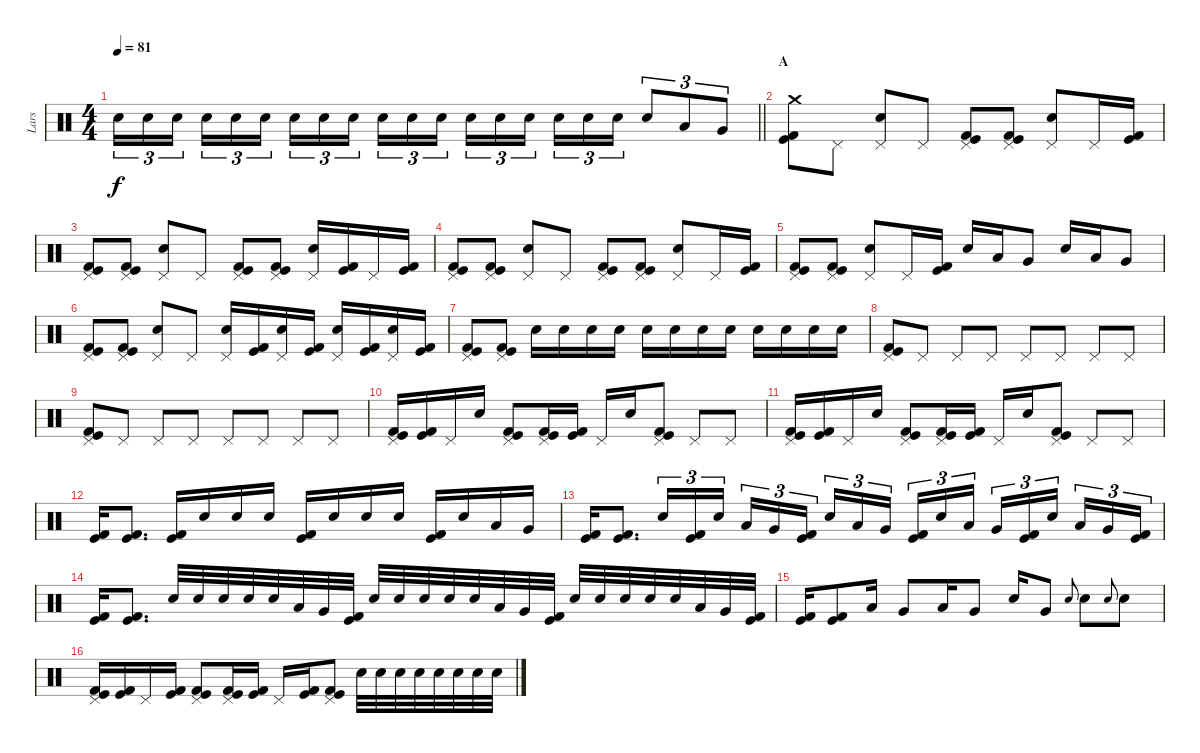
\track ("Lars" "Lars") {instrument percussion}
\staff {score}
\articulation defaults
\ts (4 4)
\tempo 81
\clef neutral
\barLineRight lightlight
\ks c "Electric Snare (hit)".16{tu (3 2) dy f} "Electric Snare (hit)".16{tu (3 2)} "Electric Snare (hit)".16{tu (3 2) beam splitsecondary} "Electric Snare (hit)".16{tu (3 2)} "Electric Snare (hit)".16{tu (3 2)} "Electric Snare (hit)".16{tu (3 2)} "Electric Snare (hit)".16{tu (3 2)} "Electric Snare (hit)".16{tu (3 2)} "Electric Snare (hit)".16{tu (3 2) beam splitsecondary} "Electric Snare (hit)".16{tu (3 2)} "Electric Snare (hit)".16{tu (3 2)} "Electric Snare (hit)".16{tu (3 2)} "Electric Snare (hit)".16{tu (3 2)} "Electric Snare (hit)".16{tu (3 2)} "Electric Snare (hit)".16{tu (3 2) beam splitsecondary} "Electric Snare (hit)".16{tu (3 2)} "Electric Snare (hit)".16{tu (3 2)} "Electric Snare (hit)".16{tu (3 2)} "Electric Snare (hit)".8{tu (3 2)} "Low Tom (hit)".8{tu (3 2)} "Very Low Tom (hit)".8{tu (3 2)}
|
\section ("" "A")
("Crash medium (hit)" "Kick (hit)" "Kick (hit) 2").8 "Pedal Hi-Hat (hit)".8 ("Pedal Hi-Hat (hit)" "Electric Snare (hit)").8 "Pedal Hi-Hat (hit)".8 ("Pedal Hi-Hat (hit)" "Kick (hit)" "Kick (hit) 2").8 ("Pedal Hi-Hat (hit)" "Kick (hit)" "Kick (hit) 2").8 ("Pedal Hi-Hat (hit)" "Electric Snare (hit)").8 "Pedal Hi-Hat (hit)".16 ("Kick (hit)" "Kick (hit) 2").16 |
("Pedal Hi-Hat (hit)" "Kick (hit)" "Kick (hit) 2").8 ("Pedal Hi-Hat (hit)" "Kick (hit)" "Kick (hit) 2").8 ("Pedal Hi-Hat (hit)" "Electric Snare (hit)").8 "Pedal Hi-Hat (hit)".8 ("Pedal Hi-Hat (hit)" "Kick (hit)" "Kick (hit) 2").8 ("Pedal Hi-Hat (hit)" "Kick (hit)" "Kick (hit) 2").8 ("Pedal Hi-Hat (hit)" "Electric Snare (hit)").16 ("Kick (hit)" "Kick (hit) 2").16 "Pedal Hi-Hat (hit)".16 ("Kick (hit)" "Kick (hit) 2").16 |
("Pedal Hi-Hat (hit)" "Kick (hit)" "Kick (hit) 2").8 ("Pedal Hi-Hat (hit)" "Kick (hit)" "Kick (hit) 2").8 ("Pedal Hi-Hat (hit)" "Electric Snare (hit)").8 "Pedal Hi-Hat (hit)".8 ("Pedal Hi-Hat (hit)" "Kick (hit)" "Kick (hit) 2").8 ("Pedal Hi-Hat (hit)" "Kick (hit)" "Kick (hit) 2").8 ("Pedal Hi-Hat (hit)" "Electric Snare (hit)").8 "Pedal Hi-Hat (hit)".16 ("Kick (hit)" "Kick (hit) 2").16 |
("Pedal Hi-Hat (hit)" "Kick (hit)" "Kick (hit) 2").8 ("Pedal Hi-Hat (hit)" "Kick (hit)" "Kick (hit) 2").8 ("Pedal Hi-Hat (hit)" "Electric Snare (hit)").8 "Pedal Hi-Hat (hit)".16 ("Kick (hit)" "Kick (hit) 2").16 "Electric Snare (hit)".16 "Low Tom (hit)".16 "Very Low Tom (hit)".8 "Electric Snare (hit)".16 "Low Tom (hit)".16 "Very Low Tom (hit)".8 |
("Pedal Hi-Hat (hit)" "Kick (hit)" "Kick (hit) 2").8 ("Pedal Hi-Hat (hit)" "Kick (hit)" "Kick (hit) 2").8 ("Pedal Hi-Hat (hit)" "Electric Snare (hit)").8 "Pedal Hi-Hat (hit)".8 ("Pedal Hi-Hat (hit)" "Electric Snare (hit)").16 ("Kick (hit)" "Kick (hit) 2").16 ("Pedal Hi-Hat (hit)" "Electric Snare (hit)").16 ("Kick (hit)" "Kick (hit) 2").16 ("Pedal Hi-Hat (hit)" "Electric Snare (hit)").16 ("Kick (hit)" "Kick (hit) 2").16 ("Pedal Hi-Hat (hit)" "Electric Snare (hit)").16 ("Kick (hit)" "Kick (hit) 2").16 |
("Pedal Hi-Hat (hit)" "Kick (hit)" "Kick (hit) 2").8 ("Pedal Hi-Hat (hit)" "Kick (hit)" "Kick (hit) 2").8 "Electric Snare (hit)".16 "Electric Snare (hit)".16 "Electric Snare (hit)".16 "Electric Snare (hit)".16 "Electric Snare (hit)".16 "Electric Snare (hit)".16 "Electric Snare (hit)".16 "Electric Snare (hit)".16 "Electric Snare (hit)".16 "Electric Snare (hit)".16 "Electric Snare (hit)".16 "Electric Snare (hit)".16 |
("Pedal Hi-Hat (hit)" "Kick (hit)" "Kick (hit) 2").8 "Pedal Hi-Hat (hit)".8 "Pedal Hi-Hat (hit)".8 "Pedal Hi-Hat (hit)".8 "Pedal Hi-Hat (hit)".8 "Pedal Hi-Hat (hit)".8 "Pedal Hi-Hat (hit)".8 "Pedal Hi-Hat (hit)".8 |
("Pedal Hi-Hat (hit)" "Kick (hit)" "Kick (hit) 2").8 "Pedal Hi-Hat (hit)".8 "Pedal Hi-Hat (hit)".8 "Pedal Hi-Hat (hit)".8 "Pedal Hi-Hat (hit)".8 "Pedal Hi-Hat (hit)".8 "Pedal Hi-Hat (hit)".8 "Pedal Hi-Hat (hit)".8 |
("Pedal Hi-Hat (hit)" "Kick (hit)" "Kick (hit) 2").16 ("Kick (hit)" "Kick (hit) 2").16 "Pedal Hi-Hat (hit)".16 "Electric Snare (hit)".16 ("Pedal Hi-Hat (hit)" "Kick (hit)" "Kick (hit) 2").8 ("Pedal Hi-Hat (hit)" "Kick (hit)" "Kick (hit) 2").16 ("Kick (hit)" "Kick (hit) 2").16 "Pedal Hi-Hat (hit)".16 "Electric Snare (hit)".16 ("Pedal Hi-Hat (hit)" "Kick (hit)" "Kick (hit) 2").8 "Pedal Hi-Hat (hit)".8 "Pedal Hi-Hat (hit)".8 |
("Pedal Hi-Hat (hit)" "Kick (hit)" "Kick (hit) 2").16 ("Kick (hit)" "Kick (hit) 2").16 "Pedal Hi-Hat (hit)".16 "Electric Snare (hit)".16 ("Pedal Hi-Hat (hit)" "Kick (hit)" "Kick (hit) 2").8 ("Pedal Hi-Hat (hit)" "Kick (hit)" "Kick (hit) 2").16 ("Kick (hit)" "Kick (hit) 2").16 "Pedal Hi-Hat (hit)".16 "Electric Snare (hit)".16 ("Pedal Hi-Hat (hit)" "Kick (hit)" "Kick (hit) 2").8 "Pedal Hi-Hat (hit)".8 "Pedal Hi-Hat (hit)".8 |
("Kick (hit)" "Kick (hit) 2").16 ("Kick (hit)" "Kick (hit) 2").8{d} ("Kick (hit)" "Kick (hit) 2").16 "Electric Snare (hit)".16 "Electric Snare (hit)".16 "Electric Snare (hit)".16 ("Kick (hit)" "Kick (hit) 2").16 "Electric Snare (hit)".16 "Electric Snare (hit)".16 "Electric Snare (hit)".16 ("Kick (hit)" "Kick (hit) 2").16 "Electric Snare (hit)".16 "Low Tom (hit)".16 "Very Low Tom (hit)".16 |
("Kick (hit)" "Kick (hit) 2").16 ("Kick (hit)" "Kick (hit) 2").8{d} "Electric Snare (hit)".16{tu (3 2)} ("Kick (hit)" "Kick (hit) 2").16{tu (3 2)} "Electric Snare (hit)".16{tu (3 2) beam splitsecondary} "Low Tom (hit)".16{tu (3 2)} "Very Low Tom (hit)".16{tu (3 2)} ("Kick (hit)" "Kick (hit) 2").16{tu (3 2)} "Electric Snare (hit)".16{tu (3 2)} "Low Tom (hit)".16{tu (3 2)} "Very Low Tom (hit)".16{tu (3 2) beam splitsecondary} ("Kick (hit)" "Kick (hit) 2").16{tu (3 2)} "Electric Snare (hit)".16{tu (3 2)} "Low Tom (hit)".16{tu (3 2)} "Very Low Tom (hit)".16{tu (3 2)} ("Kick (hit)" "Kick (hit) 2").16{tu (3 2)} "Electric Snare (hit)".16{tu (3 2) beam splitsecondary} "Low Tom (hit)".16{tu (3 2)} "Very Low Tom (hit)".16{tu (3 2)} ("Kick (hit)" "Kick (hit) 2").16{tu (3 2)} |
("Kick (hit)" "Kick (hit) 2").16 ("Kick (hit)" "Kick (hit) 2").8{d} "Electric Snare (hit)".32 "Electric Snare (hit)".32 "Electric Snare (hit)".32 "Electric Snare (hit)".32 "Electric Snare (hit)".32 "Low Tom (hit)".32 "Very Low Tom (hit)".32 ("Kick (hit)" "Kick (hit) 2").32 "Electric Snare (hit)".32 "Electric Snare (hit)".32 "Electric Snare (hit)".32 "Electric Snare (hit)".32 "Electric Snare (hit)".32 "Low Tom (hit)".32 "Very Low Tom (hit)".32 ("Kick (hit)" "Kick (hit) 2").32 "Electric Snare (hit)".32 "Electric Snare (hit)".32 "Electric Snare (hit)".32 "Electric Snare (hit)".32 "Electric Snare (hit)".32 "Low Tom (hit)".32 "Very Low Tom (hit)".32 ("Kick (hit)" "Kick (hit) 2").32 |
("Kick (hit)" "Kick (hit) 2").16 ("Kick (hit)" "Kick (hit) 2").8 "Low Tom (hit)".16 "Very Low Tom (hit)".8 "Low Tom (hit)".16 "Very Low Tom (hit)".8 "Electric Snare (hit)".16 "Very Low Tom (hit)".8 "Electric Snare (hit)".8{gr onbeat} "Electric Snare (hit)".8 "Electric Snare (hit)".8{gr onbeat} "Electric Snare (hit)".8 |
("Pedal Hi-Hat (hit)" "Kick (hit)" "Kick (hit) 2").16 ("Kick (hit)" "Kick (hit) 2").16 "Pedal Hi-Hat (hit)".16 ("Kick (hit)" "Kick (hit) 2").16 ("Pedal Hi-Hat (hit)" "Kick (hit)" "Kick (hit) 2").8 ("Pedal Hi-Hat (hit)" "Kick (hit)" "Kick (hit) 2").16 ("Kick (hit)" "Kick (hit) 2").16 "Pedal Hi-Hat (hit)".16 ("Kick (hit)" "Kick (hit) 2").16 ("Pedal Hi-Hat (hit)" "Kick (hit)" "Kick (hit) 2").8 "Electric Snare (hit)".32 "Electric Snare (hit)".32 "Electric Snare (hit)".32 "Electric Snare (hit)".32 "Electric Snare (hit)".32 "Electric Snare (hit)".32 "Electric Snare (hit)".32 "Electric Snare (hit)".32
